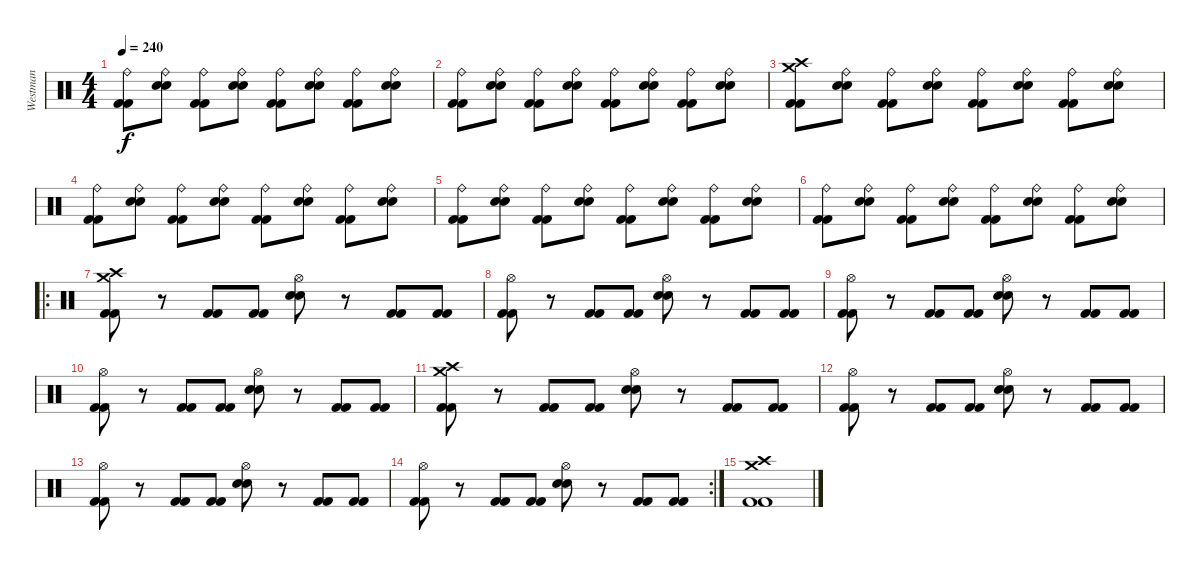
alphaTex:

\track ("Westman" "Westman") {instrument percussion}
\staff {score}
\articulation defaults
\ts (4 4)
\tempo 240
\clef neutral
\ks c
("Kick (hit) 2" "Kick (hit) 2" "Ride (bell)").8{dy f} ("Electric Snare (hit)" "Snare (hit) 2" "Ride (bell)").8 ("Kick (hit) 2" "Kick (hit) 2" "Ride (bell)").8 ("Electric Snare (hit)" "Snare (hit) 2" "Ride (bell)").8 ("Kick (hit) 2" "Kick (hit) 2" "Ride (bell)").8 ("Electric Snare (hit)" "Snare (hit) 2" "Ride (bell)").8 ("Kick (hit) 2" "Kick (hit) 2" "Ride (bell)").8 ("Electric Snare (hit)" "Snare (hit) 2" "Ride (bell)").8 |
("Kick (hit) 2" "Kick (hit) 2" "Ride (bell)").8 ("Electric Snare (hit)" "Snare (hit) 2" "Ride (bell)").8 ("Kick (hit) 2" "Kick (hit) 2" "Ride (bell)").8 ("Electric Snare (hit)" "Snare (hit) 2" "Ride (bell)").8 ("Kick (hit) 2" "Kick (hit) 2" "Ride (bell)").8 ("Electric Snare (hit)" "Snare (hit) 2" "Ride (bell)").8 ("Kick (hit) 2" "Kick (hit) 2" "Ride (bell)").8 ("Electric Snare (hit)" "Snare (hit) 2" "Ride (bell)").8 |
("Kick (hit) 2" "Kick (hit) 2" "Crash high (hit)" "Crash medium (hit)").8 ("Electric Snare (hit)" "Snare (hit) 2" "Ride (bell)").8 ("Kick (hit) 2" "Kick (hit) 2" "Ride (bell)").8 ("Electric Snare (hit)" "Snare (hit) 2" "Ride (bell)").8 ("Kick (hit) 2" "Kick (hit) 2" "Ride (bell)").8 ("Electric Snare (hit)" "Snare (hit) 2" "Ride (bell)").8 ("Kick (hit) 2" "Kick (hit) 2" "Ride (bell)").8 ("Electric Snare (hit)" "Snare (hit) 2" "Ride (bell)").8 |
("Kick (hit) 2" "Kick (hit) 2" "Ride (bell)").8 ("Electric Snare (hit)" "Snare (hit) 2" "Ride (bell)").8 ("Kick (hit) 2" "Kick (hit) 2" "Ride (bell)").8 ("Electric Snare (hit)" "Snare (hit) 2" "Ride (bell)").8 ("Kick (hit) 2" "Kick (hit) 2" "Ride (bell)").8 ("Electric Snare (hit)" "Snare (hit) 2" "Ride (bell)").8 ("Kick (hit) 2" "Kick (hit) 2" "Ride (bell)").8 ("Electric Snare (hit)" "Snare (hit) 2" "Ride (bell)").8 |
("Kick (hit) 2" "Kick (hit) 2" "Ride (bell)").8 ("Electric Snare (hit)" "Snare (hit) 2" "Ride (bell)").8 ("Kick (hit) 2" "Kick (hit) 2" "Ride (bell)").8 ("Electric Snare (hit)" "Snare (hit) 2" "Ride (bell)").8 ("Kick (hit) 2" "Kick (hit) 2" "Ride (bell)").8 ("Electric Snare (hit)" "Snare (hit) 2" "Ride (bell)").8 ("Kick (hit) 2" "Kick (hit) 2" "Ride (bell)").8 ("Electric Snare (hit)" "Snare (hit) 2" "Ride (bell)").8 |
("Kick (hit) 2" "Kick (hit) 2" "Ride (bell)").8 ("Electric Snare (hit)" "Snare (hit) 2" "Ride (bell)").8 ("Kick (hit) 2" "Kick (hit) 2" "Ride (bell)").8 ("Electric Snare (hit)" "Snare (hit) 2" "Ride (bell)").8 ("Kick (hit) 2" "Kick (hit) 2" "Ride (bell)").8 ("Electric Snare (hit)" "Snare (hit) 2" "Ride (bell)").8 ("Kick (hit) 2" "Kick (hit) 2" "Ride (bell)").8 ("Electric Snare (hit)" "Snare (hit) 2" "Ride (bell)").8 |
\ro
("Kick (hit) 2" "Kick (hit) 2" "Crash high (hit)" "Crash medium (hit)").8 r.8 ("Kick (hit) 2" "Kick (hit) 2").8 ("Kick (hit) 2" "Kick (hit) 2").8 ("Snare (hit) 2" "Electric Snare (hit)" "Hi-Hat (open)").8 r.8 ("Kick (hit) 2" "Kick (hit) 2").8 ("Kick (hit) 2" "Kick (hit) 2").8 |
("Kick (hit) 2" "Kick (hit) 2" "Hi-Hat (open)").8 r.8 ("Kick (hit) 2" "Kick (hit) 2").8 ("Kick (hit) 2" "Kick (hit) 2").8 ("Snare (hit) 2" "Electric Snare (hit)" "Hi-Hat (open)").8 r.8 ("Kick (hit) 2" "Kick (hit) 2").8 ("Kick (hit) 2" "Kick (hit) 2").8 |
("Kick (hit) 2" "Kick (hit) 2" "Hi-Hat (open)").8 r.8 ("Kick (hit) 2" "Kick (hit) 2").8 ("Kick (hit) 2" "Kick (hit) 2").8 ("Snare (hit) 2" "Electric Snare (hit)" "Hi-Hat (open)").8 r.8 ("Kick (hit) 2" "Kick (hit) 2").8 ("Kick (hit) 2" "Kick (hit) 2").8 |
("Kick (hit) 2" "Kick (hit) 2" "Hi-Hat (open)").8 r.8 ("Kick (hit) 2" "Kick (hit) 2").8 ("Kick (hit) 2" "Kick (hit) 2").8 ("Snare (hit) 2" "Electric Snare (hit)" "Hi-Hat (open)").8 r.8 ("Kick (hit) 2" "Kick (hit) 2").8 ("Kick (hit) 2" "Kick (hit) 2").8 |
("Kick (hit) 2" "Kick (hit) 2" "Crash high (hit)" "Crash medium (hit)").8 r.8 ("Kick (hit) 2" "Kick (hit) 2").8 ("Kick (hit) 2" "Kick (hit) 2").8 ("Snare (hit) 2" "Electric Snare (hit)" "Hi-Hat (open)").8 r.8 ("Kick (hit) 2" "Kick (hit) 2").8 ("Kick (hit) 2" "Kick (hit) 2").8 |
("Kick (hit) 2" "Kick (hit) 2" "Hi-Hat (open)").8 r.8 ("Kick (hit) 2" "Kick (hit) 2").8 ("Kick (hit) 2" "Kick (hit) 2").8 ("Snare (hit) 2" "Electric Snare (hit)" "Hi-Hat (open)").8 r.8 ("Kick (hit) 2" "Kick (hit) 2").8 ("Kick (hit) 2" "Kick (hit) 2").8 |
("Kick (hit) 2" "Kick (hit) 2" "Hi-Hat (open)").8 r.8 ("Kick (hit) 2" "Kick (hit) 2").8 ("Kick (hit) 2" "Kick (hit) 2").8 ("Snare (hit) 2" "Electric Snare (hit)" "Hi-Hat (open)").8 r.8 ("Kick (hit) 2" "Kick (hit) 2").8 ("Kick (hit) 2" "Kick (hit) 2").8 |
\rc 2
("Kick (hit) 2" "Kick (hit) 2" "Hi-Hat (open)").8 r.8 ("Kick (hit) 2" "Kick (hit) 2").8 ("Kick (hit) 2" "Kick (hit) 2").8 ("Snare (hit) 2" "Electric Snare (hit)" "Hi-Hat (open)").8 r.8 ("Kick (hit) 2" "Kick (hit) 2").8 ("Kick (hit) 2" "Kick (hit) 2").8 |
("Kick (hit) 2" "Kick (hit) 2" "Crash high (hit)" "Crash medium (hit)").1
